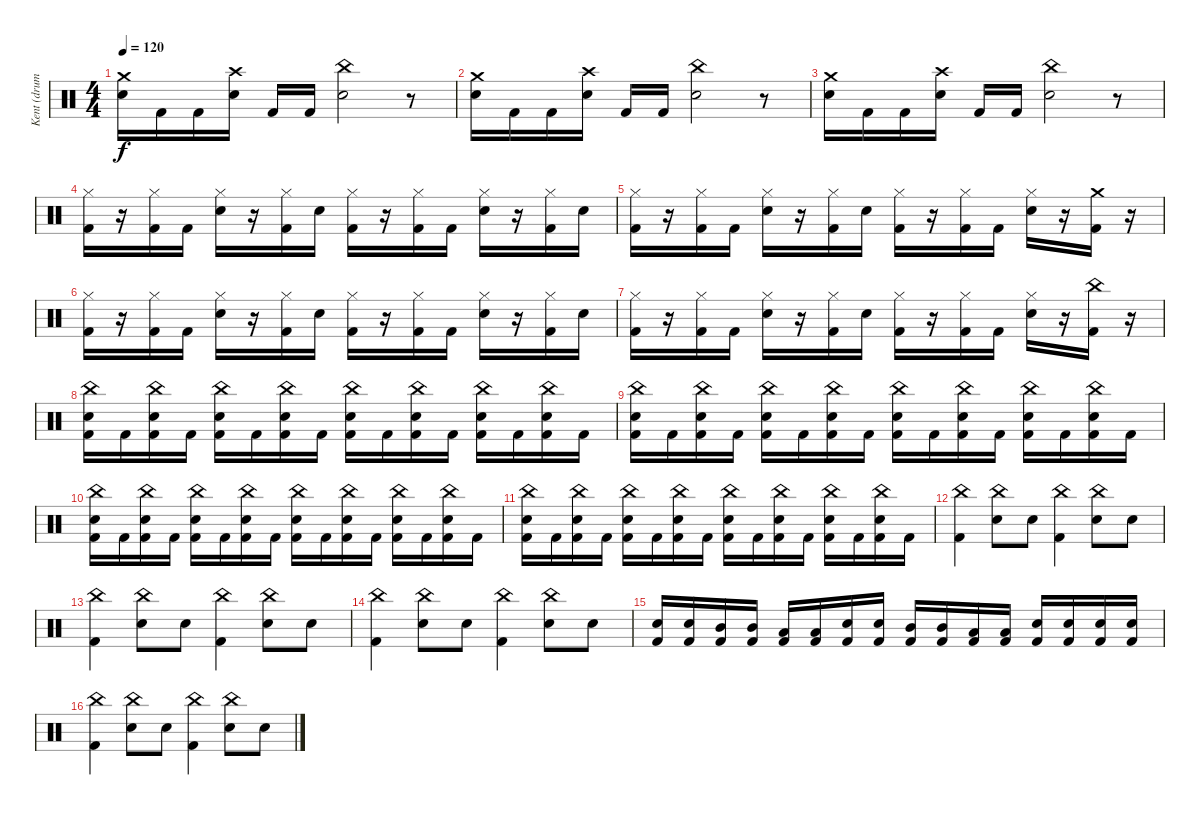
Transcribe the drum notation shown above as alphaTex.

\track ("Kent (drums)" "Kent (drum") {instrument percussion}
\staff {score}
\articulation defaults
\ts (4 4)
\tempo 120
\clef neutral
\ks c
("Crash medium (hit)" "Snare (hit) 2").16{dy f} "Kick (hit) 2".16 "Kick (hit) 2".16 ("Crash high (hit)" "Snare (hit) 2").16 "Kick (hit) 2".16 "Kick (hit) 2".16 ("China (hit)" "Snare (hit) 2").2 r.8 |
("Crash medium (hit)" "Snare (hit) 2").16 "Kick (hit) 2".16 "Kick (hit) 2".16 ("Crash high (hit)" "Snare (hit) 2").16 "Kick (hit) 2".16 "Kick (hit) 2".16 ("China (hit)" "Snare (hit) 2").2 r.8 |
("Crash medium (hit)" "Snare (hit) 2").16 "Kick (hit) 2".16 "Kick (hit) 2".16 ("Crash high (hit)" "Snare (hit) 2").16 "Kick (hit) 2".16 "Kick (hit) 2".16 ("China (hit)" "Snare (hit) 2").2 r.8 |
("Hi-Hat (closed)" "Kick (hit) 2").16 r.16 ("Hi-Hat (closed)" "Kick (hit) 2").16 "Kick (hit) 2".16 ("Hi-Hat (closed)" "Snare (hit) 2").16 r.16 ("Hi-Hat (closed)" "Kick (hit) 2").16 "Snare (hit) 2".16 ("Hi-Hat (closed)" "Kick (hit) 2").16 r.16 ("Hi-Hat (closed)" "Kick (hit) 2").16 "Kick (hit) 2".16 ("Hi-Hat (closed)" "Snare (hit) 2").16 r.16 ("Hi-Hat (closed)" "Kick (hit) 2").16 "Snare (hit) 2".16 |
("Hi-Hat (closed)" "Kick (hit) 2").16 r.16 ("Hi-Hat (closed)" "Kick (hit) 2").16 "Kick (hit) 2".16 ("Hi-Hat (closed)" "Snare (hit) 2").16 r.16 ("Hi-Hat (closed)" "Kick (hit) 2").16 "Snare (hit) 2".16 ("Hi-Hat (closed)" "Kick (hit) 2").16 r.16 ("Hi-Hat (closed)" "Kick (hit) 2").16 "Kick (hit) 2".16 ("Hi-Hat (closed)" "Snare (hit) 2").16 r.16 ("Crash medium (hit)" "Kick (hit) 2").16 r.16 |
("Hi-Hat (closed)" "Kick (hit) 2").16 r.16 ("Hi-Hat (closed)" "Kick (hit) 2").16 "Kick (hit) 2".16 ("Hi-Hat (closed)" "Snare (hit) 2").16 r.16 ("Hi-Hat (closed)" "Kick (hit) 2").16 "Snare (hit) 2".16 ("Hi-Hat (closed)" "Kick (hit) 2").16 r.16 ("Hi-Hat (closed)" "Kick (hit) 2").16 "Kick (hit) 2".16 ("Hi-Hat (closed)" "Snare (hit) 2").16 r.16 ("Hi-Hat (closed)" "Kick (hit) 2").16 "Snare (hit) 2".16 |
("Hi-Hat (closed)" "Kick (hit) 2").16 r.16 ("Hi-Hat (closed)" "Kick (hit) 2").16 "Kick (hit) 2".16 ("Hi-Hat (closed)" "Snare (hit) 2").16 r.16 ("Hi-Hat (closed)" "Kick (hit) 2").16 "Snare (hit) 2".16 ("Hi-Hat (closed)" "Kick (hit) 2").16 r.16 ("Hi-Hat (closed)" "Kick (hit) 2").16 "Kick (hit) 2".16 ("Hi-Hat (closed)" "Snare (hit) 2").16 r.16 ("China (hit)" "Kick (hit) 2").16 r.16 |
("China (hit)" "Snare (hit) 2" "Kick (hit) 2").16 "Kick (hit) 2".16 ("China (hit)" "Snare (hit) 2" "Kick (hit) 2").16 "Kick (hit) 2".16 ("China (hit)" "Snare (hit) 2" "Kick (hit) 2").16 "Kick (hit) 2".16 ("China (hit)" "Snare (hit) 2" "Kick (hit) 2").16 "Kick (hit) 2".16 ("China (hit)" "Snare (hit) 2" "Kick (hit) 2").16 "Kick (hit) 2".16 ("China (hit)" "Snare (hit) 2" "Kick (hit) 2").16 "Kick (hit) 2".16 ("China (hit)" "Snare (hit) 2" "Kick (hit) 2").16 "Kick (hit) 2".16 ("China (hit)" "Snare (hit) 2" "Kick (hit) 2").16 "Kick (hit) 2".16 |
("China (hit)" "Snare (hit) 2" "Kick (hit) 2").16 "Kick (hit) 2".16 ("China (hit)" "Snare (hit) 2" "Kick (hit) 2").16 "Kick (hit) 2".16 ("China (hit)" "Snare (hit) 2" "Kick (hit) 2").16 "Kick (hit) 2".16 ("China (hit)" "Snare (hit) 2" "Kick (hit) 2").16 "Kick (hit) 2".16 ("China (hit)" "Snare (hit) 2" "Kick (hit) 2").16 "Kick (hit) 2".16 ("China (hit)" "Snare (hit) 2" "Kick (hit) 2").16 "Kick (hit) 2".16 ("China (hit)" "Snare (hit) 2" "Kick (hit) 2").16 "Kick (hit) 2".16 ("China (hit)" "Snare (hit) 2" "Kick (hit) 2").16 "Kick (hit) 2".16 |
("China (hit)" "Snare (hit) 2" "Kick (hit) 2").16 "Kick (hit) 2".16 ("China (hit)" "Snare (hit) 2" "Kick (hit) 2").16 "Kick (hit) 2".16 ("China (hit)" "Snare (hit) 2" "Kick (hit) 2").16 "Kick (hit) 2".16 ("China (hit)" "Snare (hit) 2" "Kick (hit) 2").16 "Kick (hit) 2".16 ("China (hit)" "Snare (hit) 2" "Kick (hit) 2").16 "Kick (hit) 2".16 ("China (hit)" "Snare (hit) 2" "Kick (hit) 2").16 "Kick (hit) 2".16 ("China (hit)" "Snare (hit) 2" "Kick (hit) 2").16 "Kick (hit) 2".16 ("China (hit)" "Snare (hit) 2" "Kick (hit) 2").16 "Kick (hit) 2".16 |
("China (hit)" "Snare (hit) 2" "Kick (hit) 2").16 "Kick (hit) 2".16 ("China (hit)" "Snare (hit) 2" "Kick (hit) 2").16 "Kick (hit) 2".16 ("China (hit)" "Snare (hit) 2" "Kick (hit) 2").16 "Kick (hit) 2".16 ("China (hit)" "Snare (hit) 2" "Kick (hit) 2").16 "Kick (hit) 2".16 ("China (hit)" "Snare (hit) 2" "Kick (hit) 2").16 "Kick (hit) 2".16 ("China (hit)" "Snare (hit) 2" "Kick (hit) 2").16 "Kick (hit) 2".16 ("China (hit)" "Snare (hit) 2" "Kick (hit) 2").16 "Kick (hit) 2".16 ("China (hit)" "Snare (hit) 2" "Kick (hit) 2").16 "Kick (hit) 2".16 |
("China (hit)" "Kick (hit) 2").4 ("China (hit)" "Snare (hit) 2").8 "Snare (hit) 2".8 ("China (hit)" "Kick (hit) 2").4 ("China (hit)" "Snare (hit) 2").8 "Snare (hit) 2".8 |
("China (hit)" "Kick (hit) 2").4 ("China (hit)" "Snare (hit) 2").8 "Snare (hit) 2".8 ("China (hit)" "Kick (hit) 2").4 ("China (hit)" "Snare (hit) 2").8 "Snare (hit) 2".8 |
("China (hit)" "Kick (hit) 2").4 ("China (hit)" "Snare (hit) 2").8 "Snare (hit) 2".8 ("China (hit)" "Kick (hit) 2").4 ("China (hit)" "Snare (hit) 2").8 "Snare (hit) 2".8 |
("Snare (hit) 2" "Kick (hit) 2").16 ("Snare (hit) 2" "Kick (hit) 2").16 ("Mid Tom (hit)" "Kick (hit) 2").16 ("Mid Tom (hit)" "Kick (hit) 2").16 ("Low Tom (hit)" "Kick (hit) 2").16 ("Low Tom (hit)" "Kick (hit) 2").16 ("Snare (hit) 2" "Kick (hit) 2").16 ("Snare (hit) 2" "Kick (hit) 2").16 ("Mid Tom (hit)" "Kick (hit) 2").16 ("Mid Tom (hit)" "Kick (hit) 2").16 ("Low Tom (hit)" "Kick (hit) 2").16 ("Low Tom (hit)" "Kick (hit) 2").16 ("Snare (hit) 2" "Kick (hit) 2").16 ("Snare (hit) 2" "Kick (hit) 2").16 ("Snare (hit) 2" "Kick (hit) 2").16 ("Snare (hit) 2" "Kick (hit) 2").16 |
("China (hit)" "Kick (hit) 2").4 ("China (hit)" "Snare (hit) 2").8 "Snare (hit) 2".8 ("China (hit)" "Kick (hit) 2").4 ("China (hit)" "Snare (hit) 2").8 "Snare (hit) 2".8
